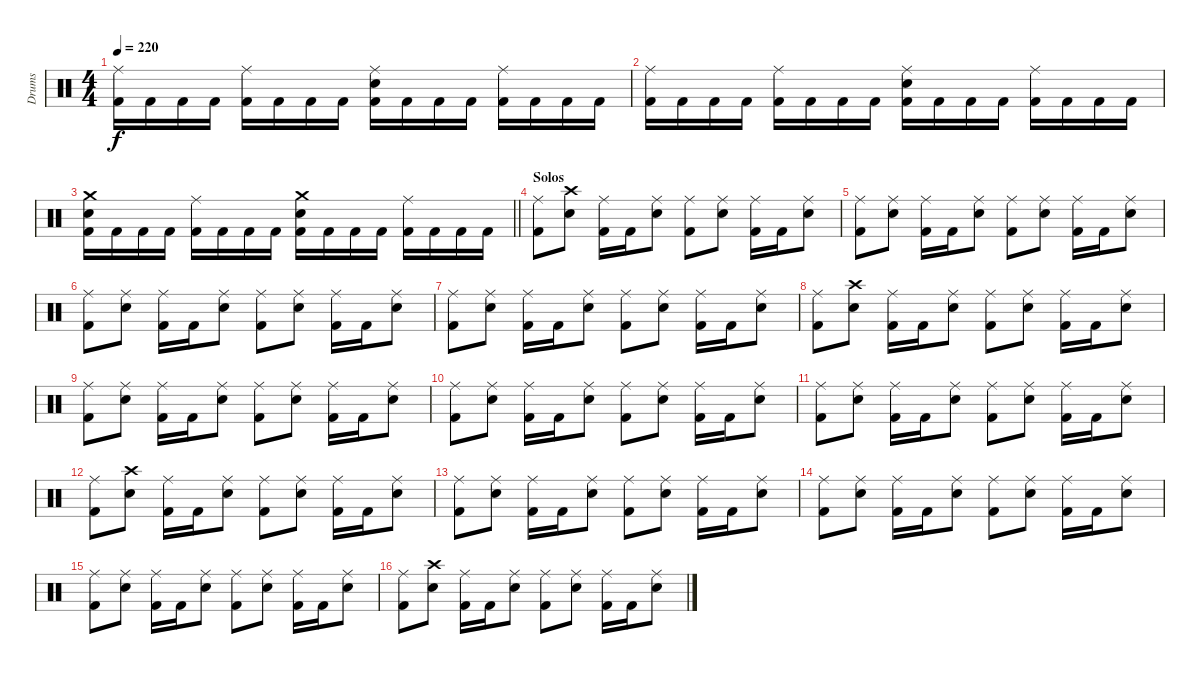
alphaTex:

\track ("Drums" "Drums") {instrument percussion}
\staff {score}
\articulation defaults
\ts (4 4)
\tempo 220
\clef neutral
\ks c
("Ride (middle)" "Kick (hit) 2").16{dy f} "Kick (hit) 2".16 "Kick (hit) 2".16 "Kick (hit) 2".16 ("Ride (middle)" "Kick (hit) 2").16 "Kick (hit) 2".16 "Kick (hit) 2".16 "Kick (hit) 2".16 ("Ride (middle)" "Snare (hit) 2" "Kick (hit) 2").16 "Kick (hit) 2".16 "Kick (hit) 2".16 "Kick (hit) 2".16 ("Ride (middle)" "Kick (hit) 2").16 "Kick (hit) 2".16 "Kick (hit) 2".16 "Kick (hit) 2".16 |
("Ride (middle)" "Kick (hit) 2").16 "Kick (hit) 2".16 "Kick (hit) 2".16 "Kick (hit) 2".16 ("Ride (middle)" "Kick (hit) 2").16 "Kick (hit) 2".16 "Kick (hit) 2".16 "Kick (hit) 2".16 ("Ride (middle)" "Snare (hit) 2" "Kick (hit) 2").16 "Kick (hit) 2".16 "Kick (hit) 2".16 "Kick (hit) 2".16 ("Ride (middle)" "Kick (hit) 2").16 "Kick (hit) 2".16 "Kick (hit) 2".16 "Kick (hit) 2".16 |
\barLineRight lightlight
("Crash medium (hit)" "Snare (hit) 2" "Kick (hit) 2").16 "Kick (hit) 2".16 "Kick (hit) 2".16 "Kick (hit) 2".16 ("Ride (middle)" "Kick (hit) 2").16 "Kick (hit) 2".16 "Kick (hit) 2".16 "Kick (hit) 2".16 ("Crash medium (hit)" "Snare (hit) 2" "Kick (hit) 2").16 "Kick (hit) 2".16 "Kick (hit) 2".16 "Kick (hit) 2".16 ("Ride (middle)" "Kick (hit) 2").16 "Kick (hit) 2".16 "Kick (hit) 2".16 "Kick (hit) 2".16 |
\section ("" "Solos")
("Ride (middle)" "Kick (hit) 2").8 ("Crash high (hit)" "Snare (hit) 2").8 ("Ride (middle)" "Kick (hit) 2").16 "Kick (hit) 2".16 ("Ride (middle)" "Snare (hit) 2").8 ("Ride (middle)" "Kick (hit) 2").8 ("Ride (middle)" "Snare (hit) 2").8 ("Ride (middle)" "Kick (hit) 2").16 "Kick (hit) 2".16 ("Ride (middle)" "Snare (hit) 2").8 |
("Ride (middle)" "Kick (hit) 2").8 ("Ride (middle)" "Snare (hit) 2").8 ("Ride (middle)" "Kick (hit) 2").16 "Kick (hit) 2".16 ("Ride (middle)" "Snare (hit) 2").8 ("Ride (middle)" "Kick (hit) 2").8 ("Ride (middle)" "Snare (hit) 2").8 ("Ride (middle)" "Kick (hit) 2").16 "Kick (hit) 2".16 ("Ride (middle)" "Snare (hit) 2").8 |
("Ride (middle)" "Kick (hit) 2").8 ("Ride (middle)" "Snare (hit) 2").8 ("Ride (middle)" "Kick (hit) 2").16 "Kick (hit) 2".16 ("Ride (middle)" "Snare (hit) 2").8 ("Ride (middle)" "Kick (hit) 2").8 ("Ride (middle)" "Snare (hit) 2").8 ("Ride (middle)" "Kick (hit) 2").16 "Kick (hit) 2".16 ("Ride (middle)" "Snare (hit) 2").8 |
("Ride (middle)" "Kick (hit) 2").8 ("Ride (middle)" "Snare (hit) 2").8 ("Ride (middle)" "Kick (hit) 2").16 "Kick (hit) 2".16 ("Ride (middle)" "Snare (hit) 2").8 ("Ride (middle)" "Kick (hit) 2").8 ("Ride (middle)" "Snare (hit) 2").8 ("Ride (middle)" "Kick (hit) 2").16 "Kick (hit) 2".16 ("Ride (middle)" "Snare (hit) 2").8 |
("Ride (middle)" "Kick (hit) 2").8 ("Crash high (hit)" "Snare (hit) 2").8 ("Ride (middle)" "Kick (hit) 2").16 "Kick (hit) 2".16 ("Ride (middle)" "Snare (hit) 2").8 ("Ride (middle)" "Kick (hit) 2").8 ("Ride (middle)" "Snare (hit) 2").8 ("Ride (middle)" "Kick (hit) 2").16 "Kick (hit) 2".16 ("Ride (middle)" "Snare (hit) 2").8 |
("Ride (middle)" "Kick (hit) 2").8 ("Ride (middle)" "Snare (hit) 2").8 ("Ride (middle)" "Kick (hit) 2").16 "Kick (hit) 2".16 ("Ride (middle)" "Snare (hit) 2").8 ("Ride (middle)" "Kick (hit) 2").8 ("Ride (middle)" "Snare (hit) 2").8 ("Ride (middle)" "Kick (hit) 2").16 "Kick (hit) 2".16 ("Ride (middle)" "Snare (hit) 2").8 |
("Ride (middle)" "Kick (hit) 2").8 ("Ride (middle)" "Snare (hit) 2").8 ("Ride (middle)" "Kick (hit) 2").16 "Kick (hit) 2".16 ("Ride (middle)" "Snare (hit) 2").8 ("Ride (middle)" "Kick (hit) 2").8 ("Ride (middle)" "Snare (hit) 2").8 ("Ride (middle)" "Kick (hit) 2").16 "Kick (hit) 2".16 ("Ride (middle)" "Snare (hit) 2").8 |
("Ride (middle)" "Kick (hit) 2").8 ("Ride (middle)" "Snare (hit) 2").8 ("Ride (middle)" "Kick (hit) 2").16 "Kick (hit) 2".16 ("Ride (middle)" "Snare (hit) 2").8 ("Ride (middle)" "Kick (hit) 2").8 ("Ride (middle)" "Snare (hit) 2").8 ("Ride (middle)" "Kick (hit) 2").16 "Kick (hit) 2".16 ("Ride (middle)" "Snare (hit) 2").8 |
("Ride (middle)" "Kick (hit) 2").8 ("Crash high (hit)" "Snare (hit) 2").8 ("Ride (middle)" "Kick (hit) 2").16 "Kick (hit) 2".16 ("Ride (middle)" "Snare (hit) 2").8 ("Ride (middle)" "Kick (hit) 2").8 ("Ride (middle)" "Snare (hit) 2").8 ("Ride (middle)" "Kick (hit) 2").16 "Kick (hit) 2".16 ("Ride (middle)" "Snare (hit) 2").8 |
("Ride (middle)" "Kick (hit) 2").8 ("Ride (middle)" "Snare (hit) 2").8 ("Ride (middle)" "Kick (hit) 2").16 "Kick (hit) 2".16 ("Ride (middle)" "Snare (hit) 2").8 ("Ride (middle)" "Kick (hit) 2").8 ("Ride (middle)" "Snare (hit) 2").8 ("Ride (middle)" "Kick (hit) 2").16 "Kick (hit) 2".16 ("Ride (middle)" "Snare (hit) 2").8 |
("Ride (middle)" "Kick (hit) 2").8 ("Ride (middle)" "Snare (hit) 2").8 ("Ride (middle)" "Kick (hit) 2").16 "Kick (hit) 2".16 ("Ride (middle)" "Snare (hit) 2").8 ("Ride (middle)" "Kick (hit) 2").8 ("Ride (middle)" "Snare (hit) 2").8 ("Ride (middle)" "Kick (hit) 2").16 "Kick (hit) 2".16 ("Ride (middle)" "Snare (hit) 2").8 |
("Ride (middle)" "Kick (hit) 2").8 ("Ride (middle)" "Snare (hit) 2").8 ("Ride (middle)" "Kick (hit) 2").16 "Kick (hit) 2".16 ("Ride (middle)" "Snare (hit) 2").8 ("Ride (middle)" "Kick (hit) 2").8 ("Ride (middle)" "Snare (hit) 2").8 ("Ride (middle)" "Kick (hit) 2").16 "Kick (hit) 2".16 ("Ride (middle)" "Snare (hit) 2").8 |
("Ride (middle)" "Kick (hit) 2").8 ("Crash high (hit)" "Snare (hit) 2").8 ("Ride (middle)" "Kick (hit) 2").16 "Kick (hit) 2".16 ("Ride (middle)" "Snare (hit) 2").8 ("Ride (middle)" "Kick (hit) 2").8 ("Ride (middle)" "Snare (hit) 2").8 ("Ride (middle)" "Kick (hit) 2").16 "Kick (hit) 2".16 ("Ride (middle)" "Snare (hit) 2").8
